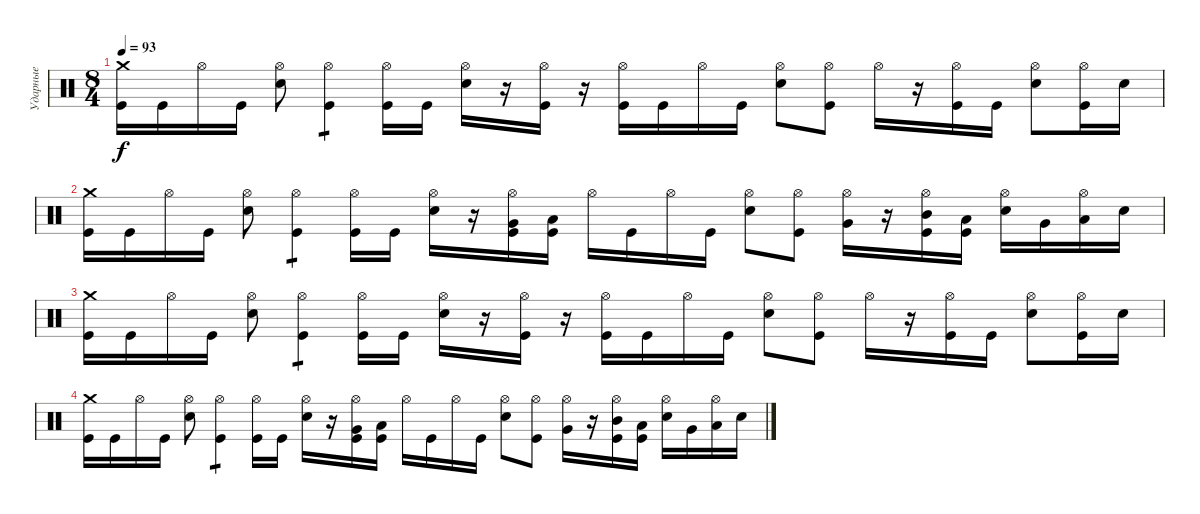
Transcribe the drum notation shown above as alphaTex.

\track ("Ударные" "Ударные") {instrument percussion}
\staff {score}
\articulation defaults
\ts (8 4)
\tempo 93
\clef neutral
\ks c
("Crash medium (hit)" "Kick (hit)").16{dy f} "Kick (hit)".16 "Hi-Hat (open)".16 "Kick (hit)".16 ("Hi-Hat (open)" "Electric Snare (hit)").8 ("Hi-Hat (open)" "Kick (hit)").4{tp 1} ("Hi-Hat (open)" "Kick (hit)").16 "Kick (hit)".16 ("Hi-Hat (open)" "Electric Snare (hit)").16 r.16 ("Hi-Hat (open)" "Kick (hit)").16 r.16 ("Hi-Hat (open)" "Kick (hit)").16 "Kick (hit)".16 "Hi-Hat (open)".16 "Kick (hit)".16 ("Hi-Hat (open)" "Electric Snare (hit)").8 ("Hi-Hat (open)" "Kick (hit)").8 "Hi-Hat (open)".16 r.16 ("Hi-Hat (open)" "Kick (hit)").16 "Kick (hit)".16 ("Hi-Hat (open)" "Electric Snare (hit)").8 ("Hi-Hat (open)" "Kick (hit)").16 "Electric Snare (hit)".16 |
("Crash medium (hit)" "Kick (hit)").16 "Kick (hit)".16 "Hi-Hat (open)".16 "Kick (hit)".16 ("Hi-Hat (open)" "Electric Snare (hit)").8 ("Hi-Hat (open)" "Kick (hit)").4{tp 1} ("Hi-Hat (open)" "Kick (hit)").16 "Kick (hit)".16 ("Hi-Hat (open)" "Electric Snare (hit)").16 r.16 ("Hi-Hat (open)" "Very Low Tom (hit)" "Kick (hit)").16 ("Low Floor Tom (hit)" "Kick (hit)").16 "Hi-Hat (open)".16 "Kick (hit)".16 "Hi-Hat (open)".16 "Kick (hit)".16 ("Hi-Hat (open)" "Electric Snare (hit)").8 ("Hi-Hat (open)" "Kick (hit)").8 ("Hi-Hat (open)" "Very Low Tom (hit)").16 r.16 ("Hi-Hat (open)" "Mid Tom (hit)" "Kick (hit)").16 ("Low Tom (hit)" "Kick (hit)").16 ("Hi-Hat (open)" "Electric Snare (hit)").16 "Very Low Tom (hit)".16 ("Hi-Hat (open)" "Low Floor Tom (hit)").16 "Electric Snare (hit)".16 |
("Crash medium (hit)" "Kick (hit)").16 "Kick (hit)".16 "Hi-Hat (open)".16 "Kick (hit)".16 ("Hi-Hat (open)" "Electric Snare (hit)").8 ("Hi-Hat (open)" "Kick (hit)").4{tp 1} ("Hi-Hat (open)" "Kick (hit)").16 "Kick (hit)".16 ("Hi-Hat (open)" "Electric Snare (hit)").16 r.16 ("Hi-Hat (open)" "Kick (hit)").16 r.16 ("Hi-Hat (open)" "Kick (hit)").16 "Kick (hit)".16 "Hi-Hat (open)".16 "Kick (hit)".16 ("Hi-Hat (open)" "Electric Snare (hit)").8 ("Hi-Hat (open)" "Kick (hit)").8 "Hi-Hat (open)".16 r.16 ("Hi-Hat (open)" "Kick (hit)").16 "Kick (hit)".16 ("Hi-Hat (open)" "Electric Snare (hit)").8 ("Hi-Hat (open)" "Kick (hit)").16 "Electric Snare (hit)".16 |
("Crash medium (hit)" "Kick (hit)").16 "Kick (hit)".16 "Hi-Hat (open)".16 "Kick (hit)".16 ("Hi-Hat (open)" "Electric Snare (hit)").8 ("Hi-Hat (open)" "Kick (hit)").4{tp 1} ("Hi-Hat (open)" "Kick (hit)").16 "Kick (hit)".16 ("Hi-Hat (open)" "Electric Snare (hit)").16 r.16 ("Hi-Hat (open)" "Very Low Tom (hit)" "Kick (hit)").16 ("Low Floor Tom (hit)" "Kick (hit)").16 "Hi-Hat (open)".16 "Kick (hit)".16 "Hi-Hat (open)".16 "Kick (hit)".16 ("Hi-Hat (open)" "Electric Snare (hit)").8 ("Hi-Hat (open)" "Kick (hit)").8 ("Hi-Hat (open)" "Very Low Tom (hit)").16 r.16 ("Hi-Hat (open)" "Mid Tom (hit)" "Kick (hit)").16 ("Low Tom (hit)" "Kick (hit)").16 ("Hi-Hat (open)" "Electric Snare (hit)").16 "Very Low Tom (hit)".16 ("Hi-Hat (open)" "Low Floor Tom (hit)").16 "Electric Snare (hit)".16
